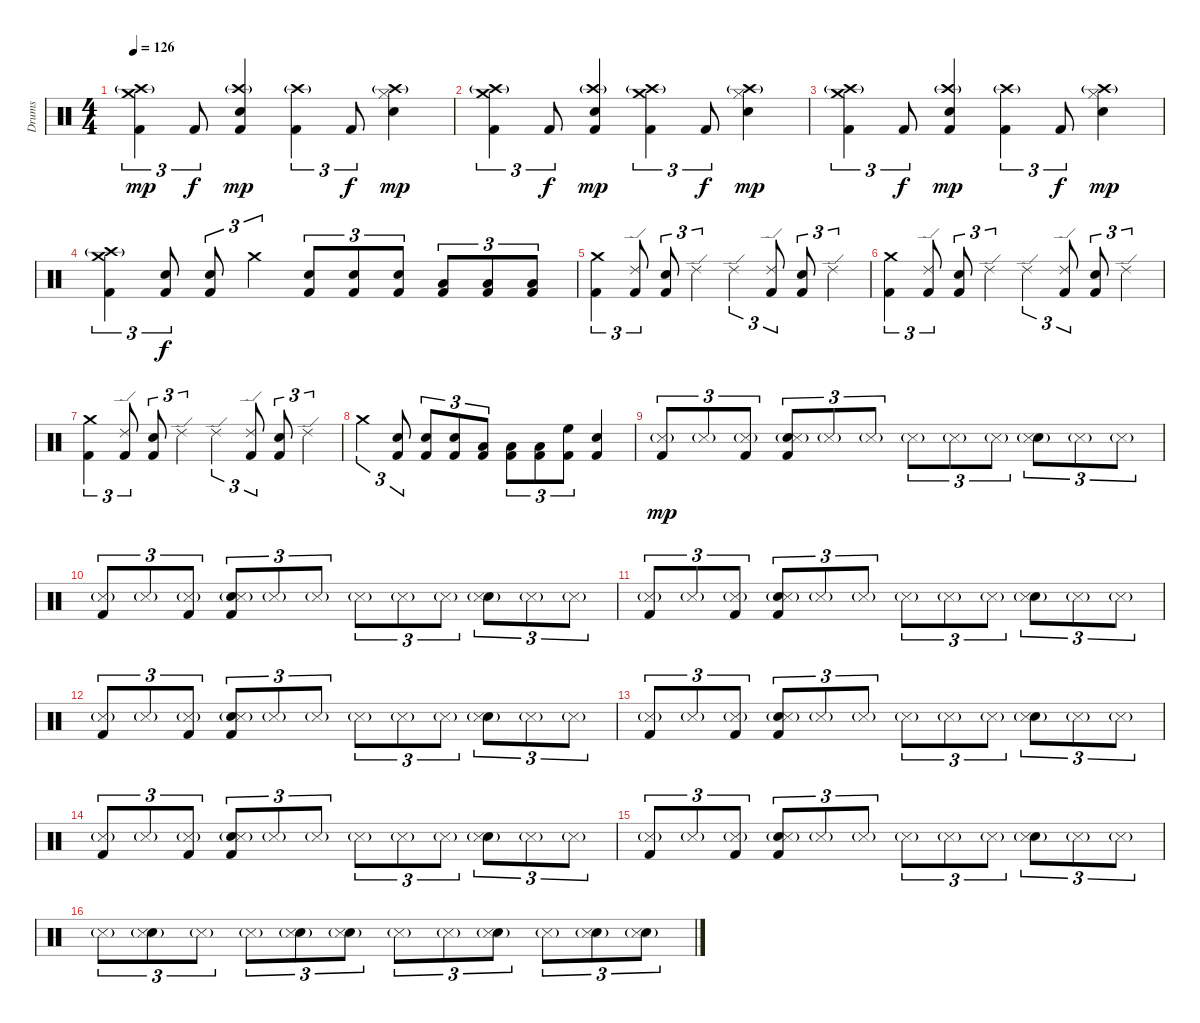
\track ("Drums" "Drums") {instrument percussion}
\staff {score}
\articulation defaults
\ts (4 4)
\tempo 126
\clef neutral
\ks c
("Kick (hit) 2" "Crash medium (hit)" "Crash high (hit)"{g}).4{tu (3 2) dy mp} "Kick (hit) 2".8{tu (3 2) dy f} ("Kick (hit) 2" "Snare (hit) 2" "Crash high (hit)"{g}).4{dy mp} ("Kick (hit) 2" "Crash high (hit)"{g}).4{tu (3 2)} "Kick (hit) 2".8{tu (3 2) dy f} ("Hi-Hat (closed)" "Snare (hit) 2" "Crash high (hit)"{g}).4{dy mp} |
("Kick (hit) 2" "Crash medium (hit)" "Crash high (hit)"{g}).4{tu (3 2)} "Kick (hit) 2".8{tu (3 2) dy f} ("Kick (hit) 2" "Snare (hit) 2" "Crash high (hit)"{g}).4{dy mp} ("Kick (hit) 2" "Crash medium (hit)" "Crash high (hit)"{g}).4{tu (3 2)} "Kick (hit) 2".8{tu (3 2) dy f} ("Hi-Hat (closed)" "Snare (hit) 2" "Crash high (hit)"{g}).4{dy mp} |
("Kick (hit) 2" "Crash medium (hit)" "Crash high (hit)"{g}).4{tu (3 2)} "Kick (hit) 2".8{tu (3 2) dy f} ("Kick (hit) 2" "Snare (hit) 2" "Crash high (hit)"{g}).4{dy mp} ("Kick (hit) 2" "Crash high (hit)"{g}).4{tu (3 2)} "Kick (hit) 2".8{tu (3 2) dy f} ("Hi-Hat (closed)" "Snare (hit) 2" "Crash high (hit)"{g}).4{dy mp} |
("Kick (hit) 2" "Crash medium (hit)" "Crash high (hit)"{g}).4{tu (3 2)} ("Kick (hit) 2" "Snare (hit) 2").8{tu (3 2) dy f} ("Kick (hit) 2" "Snare (hit) 2").8{tu (3 2)} "Crash medium (hit)".4{tu (3 2)} ("Kick (hit) 2" "Snare (hit) 2").8{tu (3 2)} ("Kick (hit) 2" "Snare (hit) 2").8{tu (3 2)} ("Kick (hit) 2" "Snare (hit) 2").8{tu (3 2)} ("Kick (hit) 2" "Low Tom (hit)").8{tu (3 2)} ("Kick (hit) 2" "Low Tom (hit)").8{tu (3 2)} ("Kick (hit) 2" "Low Tom (hit)").8{tu (3 2)} |
("Kick (hit) 2" "Crash medium (hit)").4{tu (3 2)} ("Kick (hit) 2" "Ride (edge) 2").8{tu (3 2)} ("Kick (hit) 2" "Snare (hit) 2").8{tu (3 2)} "Ride (edge) 2".4{tu (3 2)} "Ride (edge) 2".4{tu (3 2)} ("Kick (hit) 2" "Ride (edge) 2").8{tu (3 2)} ("Kick (hit) 2" "Snare (hit) 2").8{tu (3 2)} "Ride (edge) 2".4{tu (3 2)} |
("Kick (hit) 2" "Crash medium (hit)").4{tu (3 2)} ("Kick (hit) 2" "Ride (edge) 2").8{tu (3 2)} ("Kick (hit) 2" "Snare (hit) 2").8{tu (3 2)} "Ride (edge) 2".4{tu (3 2)} "Ride (edge) 2".4{tu (3 2)} ("Kick (hit) 2" "Ride (edge) 2").8{tu (3 2)} ("Kick (hit) 2" "Snare (hit) 2").8{tu (3 2)} "Ride (edge) 2".4{tu (3 2)} |
("Kick (hit) 2" "Crash medium (hit)").4{tu (3 2)} ("Kick (hit) 2" "Ride (edge) 2").8{tu (3 2)} ("Kick (hit) 2" "Snare (hit) 2").8{tu (3 2)} "Ride (edge) 2".4{tu (3 2)} "Ride (edge) 2".4{tu (3 2)} ("Kick (hit) 2" "Ride (edge) 2").8{tu (3 2)} ("Kick (hit) 2" "Snare (hit) 2").8{tu (3 2)} "Ride (edge) 2".4{tu (3 2)} |
"Crash medium (hit)".4{tu (3 2)} ("Kick (hit) 2" "Snare (hit) 2").8{tu (3 2)} ("Kick (hit) 2" "Snare (hit) 2").8{tu (3 2)} ("Kick (hit) 2" "Snare (hit) 2").8{tu (3 2)} ("Kick (hit) 2" "Low Tom (hit)").8{tu (3 2)} ("Kick (hit) 2" "Low Tom (hit)").8{tu (3 2)} ("Kick (hit) 2" "Low Tom (hit)").8{tu (3 2)} ("Kick (hit) 2" "High Floor Tom (hit)").8{tu (3 2)} ("Kick (hit) 2" "Snare (hit) 2").4 |
("Kick (hit) 2" "Metronome (hit)"{g}).8{tu (3 2) dy mp} "Metronome (hit)"{g}.8{tu (3 2)} ("Kick (hit) 2" "Metronome (hit)"{g}).8{tu (3 2)} ("Kick (hit) 2" "Snare (hit) 2" "Metronome (hit)"{g}).8{tu (3 2)} "Metronome (hit)"{g}.8{tu (3 2)} "Metronome (hit)"{g}.8{tu (3 2)} "Metronome (hit)"{g}.8{tu (3 2)} "Metronome (hit)"{g}.8{tu (3 2)} "Metronome (hit)"{g}.8{tu (3 2)} ("Snare (hit) 2" "Metronome (hit)"{g}).8{tu (3 2)} "Metronome (hit)"{g}.8{tu (3 2)} "Metronome (hit)"{g}.8{tu (3 2)} |
("Kick (hit) 2" "Metronome (hit)"{g}).8{tu (3 2)} "Metronome (hit)"{g}.8{tu (3 2)} ("Kick (hit) 2" "Metronome (hit)"{g}).8{tu (3 2)} ("Kick (hit) 2" "Snare (hit) 2" "Metronome (hit)"{g}).8{tu (3 2)} "Metronome (hit)"{g}.8{tu (3 2)} "Metronome (hit)"{g}.8{tu (3 2)} "Metronome (hit)"{g}.8{tu (3 2)} "Metronome (hit)"{g}.8{tu (3 2)} "Metronome (hit)"{g}.8{tu (3 2)} ("Snare (hit) 2" "Metronome (hit)"{g}).8{tu (3 2)} "Metronome (hit)"{g}.8{tu (3 2)} "Metronome (hit)"{g}.8{tu (3 2)} |
("Kick (hit) 2" "Metronome (hit)"{g}).8{tu (3 2)} "Metronome (hit)"{g}.8{tu (3 2)} ("Kick (hit) 2" "Metronome (hit)"{g}).8{tu (3 2)} ("Kick (hit) 2" "Snare (hit) 2" "Metronome (hit)"{g}).8{tu (3 2)} "Metronome (hit)"{g}.8{tu (3 2)} "Metronome (hit)"{g}.8{tu (3 2)} "Metronome (hit)"{g}.8{tu (3 2)} "Metronome (hit)"{g}.8{tu (3 2)} "Metronome (hit)"{g}.8{tu (3 2)} ("Snare (hit) 2" "Metronome (hit)"{g}).8{tu (3 2)} "Metronome (hit)"{g}.8{tu (3 2)} "Metronome (hit)"{g}.8{tu (3 2)} |
("Kick (hit) 2" "Metronome (hit)"{g}).8{tu (3 2)} "Metronome (hit)"{g}.8{tu (3 2)} ("Kick (hit) 2" "Metronome (hit)"{g}).8{tu (3 2)} ("Kick (hit) 2" "Snare (hit) 2" "Metronome (hit)"{g}).8{tu (3 2)} "Metronome (hit)"{g}.8{tu (3 2)} "Metronome (hit)"{g}.8{tu (3 2)} "Metronome (hit)"{g}.8{tu (3 2)} "Metronome (hit)"{g}.8{tu (3 2)} "Metronome (hit)"{g}.8{tu (3 2)} ("Snare (hit) 2" "Metronome (hit)"{g}).8{tu (3 2)} "Metronome (hit)"{g}.8{tu (3 2)} "Metronome (hit)"{g}.8{tu (3 2)} |
("Kick (hit) 2" "Metronome (hit)"{g}).8{tu (3 2)} "Metronome (hit)"{g}.8{tu (3 2)} ("Kick (hit) 2" "Metronome (hit)"{g}).8{tu (3 2)} ("Kick (hit) 2" "Snare (hit) 2" "Metronome (hit)"{g}).8{tu (3 2)} "Metronome (hit)"{g}.8{tu (3 2)} "Metronome (hit)"{g}.8{tu (3 2)} "Metronome (hit)"{g}.8{tu (3 2)} "Metronome (hit)"{g}.8{tu (3 2)} "Metronome (hit)"{g}.8{tu (3 2)} ("Snare (hit) 2" "Metronome (hit)"{g}).8{tu (3 2)} "Metronome (hit)"{g}.8{tu (3 2)} "Metronome (hit)"{g}.8{tu (3 2)} |
("Kick (hit) 2" "Metronome (hit)"{g}).8{tu (3 2)} "Metronome (hit)"{g}.8{tu (3 2)} ("Kick (hit) 2" "Metronome (hit)"{g}).8{tu (3 2)} ("Kick (hit) 2" "Snare (hit) 2" "Metronome (hit)"{g}).8{tu (3 2)} "Metronome (hit)"{g}.8{tu (3 2)} "Metronome (hit)"{g}.8{tu (3 2)} "Metronome (hit)"{g}.8{tu (3 2)} "Metronome (hit)"{g}.8{tu (3 2)} "Metronome (hit)"{g}.8{tu (3 2)} ("Snare (hit) 2" "Metronome (hit)"{g}).8{tu (3 2)} "Metronome (hit)"{g}.8{tu (3 2)} "Metronome (hit)"{g}.8{tu (3 2)} |
("Kick (hit) 2" "Metronome (hit)"{g}).8{tu (3 2)} "Metronome (hit)"{g}.8{tu (3 2)} ("Kick (hit) 2" "Metronome (hit)"{g}).8{tu (3 2)} ("Kick (hit) 2" "Snare (hit) 2" "Metronome (hit)"{g}).8{tu (3 2)} "Metronome (hit)"{g}.8{tu (3 2)} "Metronome (hit)"{g}.8{tu (3 2)} "Metronome (hit)"{g}.8{tu (3 2)} "Metronome (hit)"{g}.8{tu (3 2)} "Metronome (hit)"{g}.8{tu (3 2)} ("Snare (hit) 2" "Metronome (hit)"{g}).8{tu (3 2)} "Metronome (hit)"{g}.8{tu (3 2)} "Metronome (hit)"{g}.8{tu (3 2)} |
"Metronome (hit)"{g}.8{tu (3 2)} ("Snare (hit) 2" "Metronome (hit)"{g}).8{tu (3 2)} "Metronome (hit)"{g}.8{tu (3 2)} "Metronome (hit)"{g}.8{tu (3 2)} ("Snare (hit) 2" "Metronome (hit)"{g}).8{tu (3 2)} ("Snare (hit) 2" "Metronome (hit)"{g}).8{tu (3 2)} "Metronome (hit)"{g}.8{tu (3 2)} "Metronome (hit)"{g}.8{tu (3 2)} ("Snare (hit) 2" "Metronome (hit)"{g}).8{tu (3 2)} "Metronome (hit)"{g}.8{tu (3 2)} ("Snare (hit) 2" "Metronome (hit)"{g}).8{tu (3 2)} ("Snare (hit) 2" "Metronome (hit)"{g}).8{tu (3 2)}
